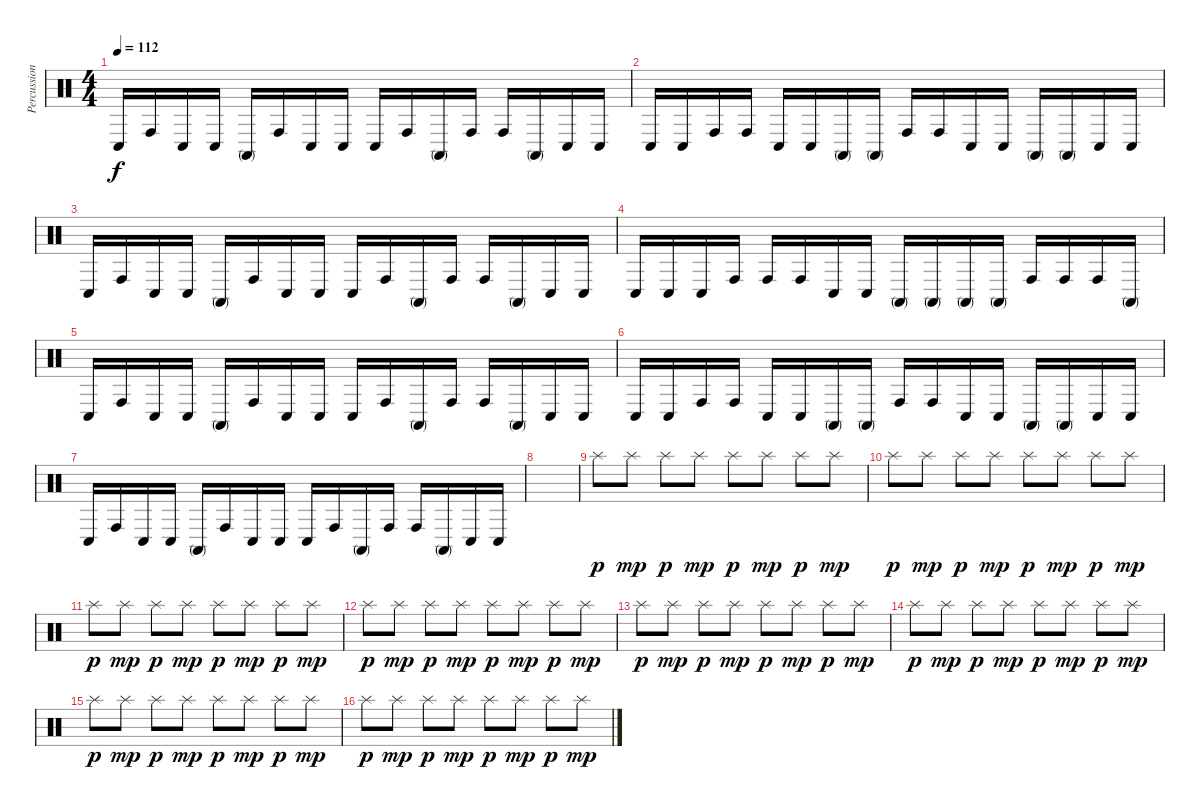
\track ("Percussion" "Percussion") {instrument percussion}
\staff {score}
\articulation defaults
\ts (4 4)
\tempo 112
\clef neutral
\ks c "Conga low (hit)".16{dy f} "Conga high (hit)".16 "Conga low (hit)".16 "Conga low (hit)".16 "Conga high (mute)".16 "Conga high (hit)".16 "Conga low (hit)".16 "Conga low (hit)".16 "Conga low (hit)".16 "Conga high (hit)".16 "Conga high (mute)".16 "Conga high (hit)".16 "Conga high (hit)".16 "Conga high (mute)".16 "Conga low (hit)".16 "Conga low (hit)".16
|
"Conga low (hit)".16 "Conga low (hit)".16 "Conga high (hit)".16 "Conga high (hit)".16 "Conga low (hit)".16 "Conga low (hit)".16 "Conga high (mute)".16 "Conga high (mute)".16 "Conga high (hit)".16 "Conga high (hit)".16 "Conga low (hit)".16 "Conga low (hit)".16 "Conga high (mute)".16 "Conga high (mute)".16 "Conga low (hit)".16 "Conga low (hit)".16 |
"Conga low (hit)".16 "Conga high (hit)".16 "Conga low (hit)".16 "Conga low (hit)".16 "Conga high (mute)".16 "Conga high (hit)".16 "Conga low (hit)".16 "Conga low (hit)".16 "Conga low (hit)".16 "Conga high (hit)".16 "Conga high (mute)".16 "Conga high (hit)".16 "Conga high (hit)".16 "Conga high (mute)".16 "Conga low (hit)".16 "Conga low (hit)".16 |
"Conga low (hit)".16 "Conga low (hit)".16 "Conga low (hit)".16 "Conga high (hit)".16 "Conga high (hit)".16 "Conga high (hit)".16 "Conga low (hit)".16 "Conga low (hit)".16 "Conga high (mute)".16 "Conga high (mute)".16 "Conga high (mute)".16 "Conga high (mute)".16 "Conga high (hit)".16 "Conga high (hit)".16 "Conga high (hit)".16 "Conga high (mute)".16 |
"Conga low (hit)".16 "Conga high (hit)".16 "Conga low (hit)".16 "Conga low (hit)".16 "Conga high (mute)".16 "Conga high (hit)".16 "Conga low (hit)".16 "Conga low (hit)".16 "Conga low (hit)".16 "Conga high (hit)".16 "Conga high (mute)".16 "Conga high (hit)".16 "Conga high (hit)".16 "Conga high (mute)".16 "Conga low (hit)".16 "Conga low (hit)".16 |
"Conga low (hit)".16 "Conga low (hit)".16 "Conga high (hit)".16 "Conga high (hit)".16 "Conga low (hit)".16 "Conga low (hit)".16 "Conga high (mute)".16 "Conga high (mute)".16 "Conga high (hit)".16 "Conga high (hit)".16 "Conga low (hit)".16 "Conga low (hit)".16 "Conga high (mute)".16 "Conga high (mute)".16 "Conga low (hit)".16 "Conga low (hit)".16 |
"Conga low (hit)".16 "Conga high (hit)".16 "Conga low (hit)".16 "Conga low (hit)".16 "Conga high (mute)".16 "Conga high (hit)".16 "Conga low (hit)".16 "Conga low (hit)".16 "Conga low (hit)".16 "Conga high (hit)".16 "Conga high (mute)".16 "Conga high (hit)".16 "Conga high (hit)".16 "Conga high (mute)".16 "Conga low (hit)".16 "Conga low (hit)".16 |
|
"Splash (hit)".8{dy p} "Splash (hit)".8{dy mp} "Splash (hit)".8{dy p} "Splash (hit)".8{dy mp} "Splash (hit)".8{dy p} "Splash (hit)".8{dy mp} "Splash (hit)".8{dy p} "Splash (hit)".8{dy mp} |
"Splash (hit)".8{dy p} "Splash (hit)".8{dy mp} "Splash (hit)".8{dy p} "Splash (hit)".8{dy mp} "Splash (hit)".8{dy p} "Splash (hit)".8{dy mp} "Splash (hit)".8{dy p} "Splash (hit)".8{dy mp} |
"Splash (hit)".8{dy p} "Splash (hit)".8{dy mp} "Splash (hit)".8{dy p} "Splash (hit)".8{dy mp} "Splash (hit)".8{dy p} "Splash (hit)".8{dy mp} "Splash (hit)".8{dy p} "Splash (hit)".8{dy mp} |
"Splash (hit)".8{dy p} "Splash (hit)".8{dy mp} "Splash (hit)".8{dy p} "Splash (hit)".8{dy mp} "Splash (hit)".8{dy p} "Splash (hit)".8{dy mp} "Splash (hit)".8{dy p} "Splash (hit)".8{dy mp} |
"Splash (hit)".8{dy p} "Splash (hit)".8{dy mp} "Splash (hit)".8{dy p} "Splash (hit)".8{dy mp} "Splash (hit)".8{dy p} "Splash (hit)".8{dy mp} "Splash (hit)".8{dy p} "Splash (hit)".8{dy mp} |
"Splash (hit)".8{dy p} "Splash (hit)".8{dy mp} "Splash (hit)".8{dy p} "Splash (hit)".8{dy mp} "Splash (hit)".8{dy p} "Splash (hit)".8{dy mp} "Splash (hit)".8{dy p} "Splash (hit)".8{dy mp} |
"Splash (hit)".8{dy p} "Splash (hit)".8{dy mp} "Splash (hit)".8{dy p} "Splash (hit)".8{dy mp} "Splash (hit)".8{dy p} "Splash (hit)".8{dy mp} "Splash (hit)".8{dy p} "Splash (hit)".8{dy mp} |
"Splash (hit)".8{dy p} "Splash (hit)".8{dy mp} "Splash (hit)".8{dy p} "Splash (hit)".8{dy mp} "Splash (hit)".8{dy p} "Splash (hit)".8{dy mp} "Splash (hit)".8{dy p} "Splash (hit)".8{dy mp}
